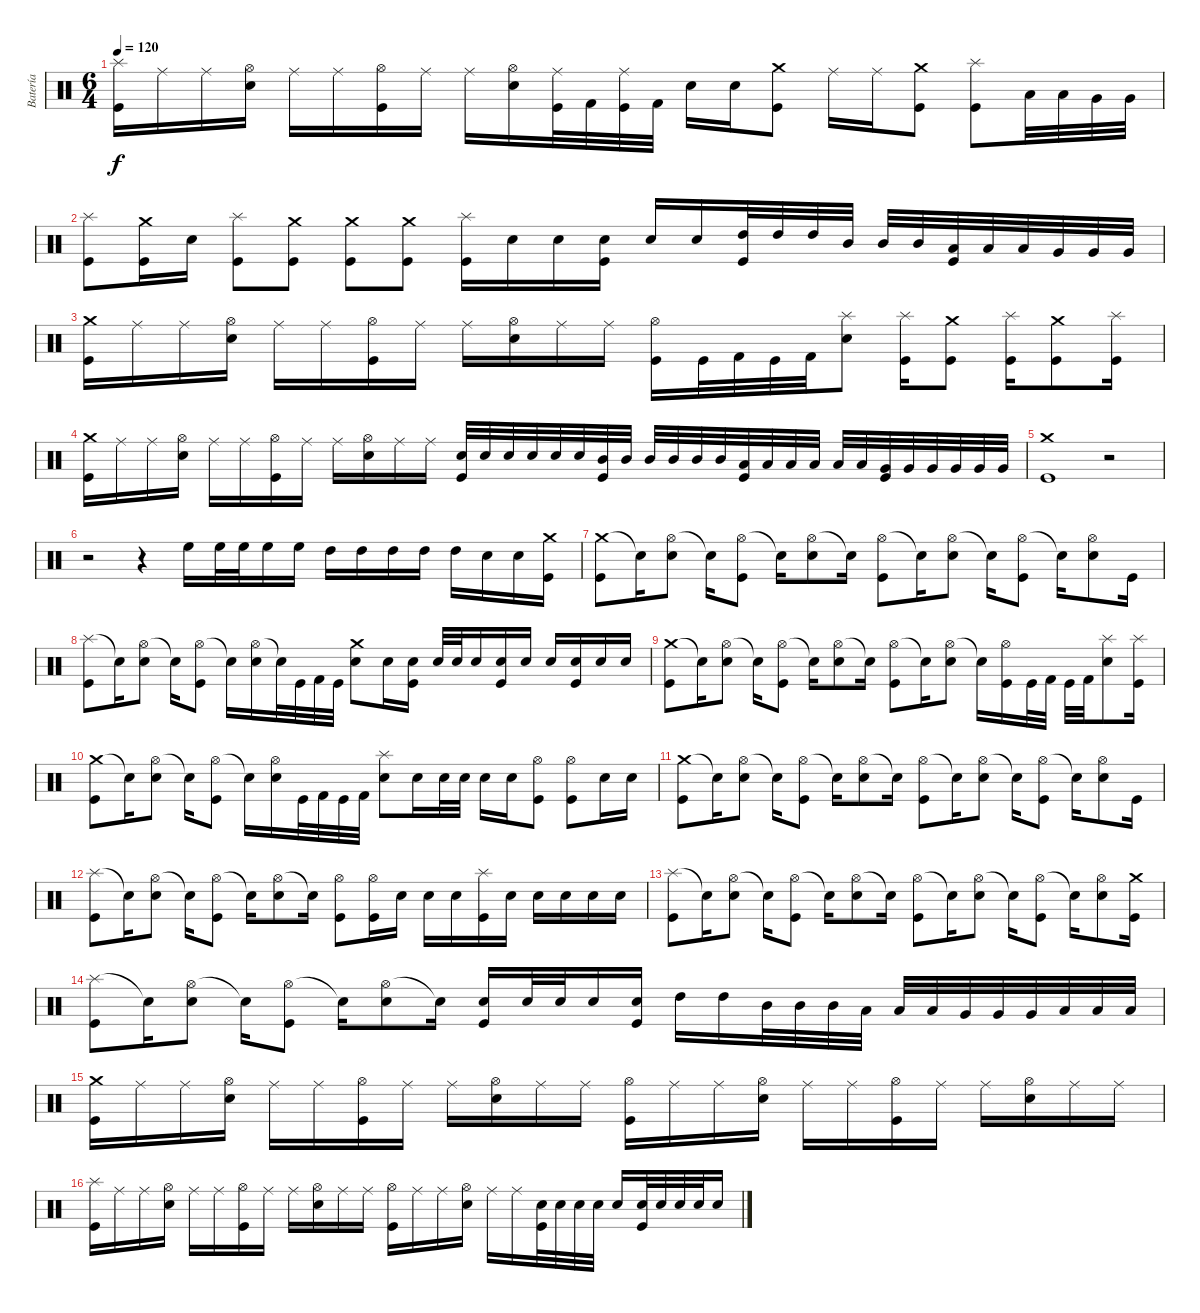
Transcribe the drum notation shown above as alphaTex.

\track ("Batería" "Batería") {instrument percussion}
\staff {score}
\articulation defaults
\ts (6 4)
\tempo 120
\clef neutral
\ks c
("Splash (hit)" "Kick (hit)").16{dy f} "Ride (middle)".16 "Ride (middle)".16 ("Hi-Hat (open)" "Electric Snare (hit)").16 "Ride (middle)".16 "Ride (middle)".16 ("Hi-Hat (open)" "Kick (hit)").16 "Ride (middle)".16 "Ride (middle)".16 ("Hi-Hat (open)" "Electric Snare (hit)").16 ("Ride (middle)" "Kick (hit)").32 "Kick (hit) 2".32 ("Ride (middle)" "Kick (hit)").32 "Kick (hit) 2".32 "Electric Snare (hit)".16 "Electric Snare (hit)".16 ("Crash medium (hit)" "Kick (hit)").8 "Ride (middle)".16 "Ride (middle)".16 ("Crash medium (hit)" "Kick (hit)").8 ("Splash (hit)" "Kick (hit)").8 "Low Tom (hit)".32 "Low Tom (hit)".32 "Very Low Tom (hit)".32 "Very Low Tom (hit)".32 |
("Splash (hit)" "Kick (hit)").8 ("Crash medium (hit)" "Kick (hit)").16 "Electric Snare (hit)".16 ("Splash (hit)" "Kick (hit)").8 ("Crash medium (hit)" "Kick (hit)").8 ("Crash medium (hit)" "Kick (hit)").8 ("Crash medium (hit)" "Kick (hit)").8 ("Splash (hit)" "Kick (hit)").16 "Electric Snare (hit)".16 "Electric Snare (hit)".16 ("Electric Snare (hit)" "Kick (hit)").16 "Electric Snare (hit)".16 "Electric Snare (hit)".16 ("High Tom (hit)" "Kick (hit)").32 "High Tom (hit)".32 "High Tom (hit)".32 "Mid Tom (hit)".32 "Mid Tom (hit)".32 "Mid Tom (hit)".32 ("Low Tom (hit)" "Kick (hit)").32 "Low Tom (hit)".32 "Low Tom (hit)".32 "Very Low Tom (hit)".32 "Very Low Tom (hit)".32 "Very Low Tom (hit)".32 |
("Crash medium (hit)" "Kick (hit)").16 "Ride (middle)".16 "Ride (middle)".16 ("Hi-Hat (open)" "Electric Snare (hit)").16 "Ride (middle)".16 "Ride (middle)".16 ("Hi-Hat (open)" "Kick (hit)").16 "Ride (middle)".16 "Ride (middle)".16 ("Hi-Hat (open)" "Electric Snare (hit)").16 "Ride (middle)".16 "Ride (middle)".16 ("Hi-Hat (open)" "Kick (hit)").16 "Kick (hit)".32 "Kick (hit) 2".32 "Kick (hit)".32 "Kick (hit) 2".32 ("Splash (hit)" "Electric Snare (hit)").8 ("Splash (hit)" "Kick (hit)").16 ("Crash medium (hit)" "Kick (hit)").8 ("Splash (hit)" "Kick (hit)").16 ("Crash medium (hit)" "Kick (hit)").8 ("Splash (hit)" "Kick (hit)").16 |
("Crash medium (hit)" "Kick (hit)").16 "Ride (middle)".16 "Ride (middle)".16 ("Hi-Hat (open)" "Electric Snare (hit)").16 "Ride (middle)".16 "Ride (middle)".16 ("Hi-Hat (open)" "Kick (hit)").16 "Ride (middle)".16 "Ride (middle)".16 ("Hi-Hat (open)" "Electric Snare (hit)").16 "Ride (middle)".16 "Ride (middle)".16 ("Electric Snare (hit)" "Kick (hit)").32 "Electric Snare (hit)".32 "Electric Snare (hit)".32 "Electric Snare (hit)".32 "Electric Snare (hit)".32 "Electric Snare (hit)".32 ("Mid Tom (hit)" "Kick (hit)").32 "Mid Tom (hit)".32 "Mid Tom (hit)".32 "Mid Tom (hit)".32 "Mid Tom (hit)".32 "Mid Tom (hit)".32 ("Low Tom (hit)" "Kick (hit)").32 "Low Tom (hit)".32 "Low Tom (hit)".32 "Low Tom (hit)".32 "Low Tom (hit)".32 "Low Tom (hit)".32 ("Very Low Tom (hit)" "Kick (hit)").32 "Very Low Tom (hit)".32 "Very Low Tom (hit)".32 "Very Low Tom (hit)".32 "Very Low Tom (hit)".32 "Very Low Tom (hit)".32 |
("Crash medium (hit)" "Kick (hit)").1 r.2 |
r.2 r.4 "High Floor Tom (hit)".16 "High Floor Tom (hit)".32 "High Floor Tom (hit)".32 "High Floor Tom (hit)".16 "High Floor Tom (hit)".16 "High Tom (hit)".16 "High Tom (hit)".16 "High Tom (hit)".16 "High Tom (hit)".16 "High Tom (hit)".16 "Electric Snare (hit)".16 "Electric Snare (hit)".16 ("Crash medium (hit)" "Kick (hit)").16 |
("Crash medium (hit)" "Kick (hit)").8 "Snare (hit)"{t}.16 ("Hi-Hat (open)" "Electric Snare (hit)").8 "Snare (hit)"{t}.16 ("Hi-Hat (open)" "Kick (hit)").8 "Snare (hit)"{t}.16 ("Hi-Hat (open)" "Electric Snare (hit)").8 "Snare (hit)"{t}.16 ("Hi-Hat (open)" "Kick (hit)").8 "Snare (hit)"{t}.16 ("Hi-Hat (open)" "Electric Snare (hit)").8 "Snare (hit)"{t}.16 ("Hi-Hat (open)" "Kick (hit)").8 "Snare (hit)"{t}.16 ("Hi-Hat (open)" "Electric Snare (hit)").8 "Kick (hit)".16 |
("Splash (hit)" "Kick (hit)").8 "Snare (hit)"{t}.16 ("Hi-Hat (open)" "Electric Snare (hit)").8 "Snare (hit)"{t}.16 ("Hi-Hat (open)" "Kick (hit)").8 "Snare (hit)"{t}.16 ("Hi-Hat (open)" "Electric Snare (hit)").16 "Snare (hit)"{t}.32 "Kick (hit)".32 "Kick (hit) 2".32 "Kick (hit)".32 ("Crash medium (hit)" "Electric Snare (hit)").8 "Electric Snare (hit)".16 ("Electric Snare (hit)" "Kick (hit)").16 "Electric Snare (hit)".32 "Electric Snare (hit)".32 "Electric Snare (hit)".16 ("Electric Snare (hit)" "Kick (hit)").16 "Electric Snare (hit)".16 "Electric Snare (hit)".16 ("Electric Snare (hit)" "Kick (hit)").16 "Electric Snare (hit)".16 "Electric Snare (hit)".16 |
("Crash medium (hit)" "Kick (hit)").8 "Snare (hit)"{t}.16 ("Hi-Hat (open)" "Electric Snare (hit)").8 "Snare (hit)"{t}.16 ("Hi-Hat (open)" "Kick (hit)").8 "Snare (hit)"{t}.16 ("Hi-Hat (open)" "Electric Snare (hit)").8 "Snare (hit)"{t}.16 ("Hi-Hat (open)" "Kick (hit)").8 "Snare (hit)"{t}.16 ("Hi-Hat (open)" "Electric Snare (hit)").8 "Snare (hit)"{t}.16 ("Hi-Hat (open)" "Kick (hit)").16 "Kick (hit)".32 "Kick (hit) 2".32 "Kick (hit)".32 "Kick (hit) 2".32 ("Splash (hit)" "Electric Snare (hit)").8 ("Splash (hit)" "Kick (hit)").16 |
("Crash medium (hit)" "Kick (hit)").8 "Snare (hit)"{t}.16 ("Hi-Hat (open)" "Electric Snare (hit)").8 "Snare (hit)"{t}.16 ("Hi-Hat (open)" "Kick (hit)").8 "Snare (hit)"{t}.16 ("Hi-Hat (open)" "Electric Snare (hit)").16 "Kick (hit)".32 "Kick (hit) 2".32 "Kick (hit)".32 "Kick (hit) 2".32 ("Splash (hit)" "Electric Snare (hit)").8 "Electric Snare (hit)".16 "Electric Snare (hit)".32 "Electric Snare (hit)".32 "Electric Snare (hit)".16 "Electric Snare (hit)".16 ("Hi-Hat (open)" "Kick (hit)").8 ("Hi-Hat (open)" "Kick (hit)").8 "Electric Snare (hit)".16 "Electric Snare (hit)".16 |
("Crash medium (hit)" "Kick (hit)").8 "Snare (hit)"{t}.16 ("Hi-Hat (open)" "Electric Snare (hit)").8 "Snare (hit)"{t}.16 ("Hi-Hat (open)" "Kick (hit)").8 "Snare (hit)"{t}.16 ("Hi-Hat (open)" "Electric Snare (hit)").8 "Snare (hit)"{t}.16 ("Hi-Hat (open)" "Kick (hit)").8 "Snare (hit)"{t}.16 ("Hi-Hat (open)" "Electric Snare (hit)").8 "Snare (hit)"{t}.16 ("Hi-Hat (open)" "Kick (hit)").8 "Snare (hit)"{t}.16 ("Hi-Hat (open)" "Electric Snare (hit)").8 "Kick (hit)".16 |
("Splash (hit)" "Kick (hit)").8 "Snare (hit)"{t}.16 ("Hi-Hat (open)" "Electric Snare (hit)").8 "Snare (hit)"{t}.16 ("Hi-Hat (open)" "Kick (hit)").8 "Snare (hit)"{t}.16 ("Hi-Hat (open)" "Electric Snare (hit)").8 "Snare (hit)"{t}.16 ("Hi-Hat (open)" "Kick (hit)").8 ("Hi-Hat (open)" "Kick (hit)").16 "Electric Snare (hit)".16 "Electric Snare (hit)".16 "Electric Snare (hit)".16 ("Splash (hit)" "Kick (hit)").16 "Electric Snare (hit)".16 "Electric Snare (hit)".16 "Electric Snare (hit)".16 "Electric Snare (hit)".16 "Electric Snare (hit)".16 |
("Splash (hit)" "Kick (hit)").8 "Snare (hit)"{t}.16 ("Hi-Hat (open)" "Electric Snare (hit)").8 "Snare (hit)"{t}.16 ("Hi-Hat (open)" "Kick (hit)").8 "Snare (hit)"{t}.16 ("Hi-Hat (open)" "Electric Snare (hit)").8 "Snare (hit)"{t}.16 ("Hi-Hat (open)" "Kick (hit)").8 "Snare (hit)"{t}.16 ("Hi-Hat (open)" "Electric Snare (hit)").8 "Snare (hit)"{t}.16 ("Hi-Hat (open)" "Kick (hit)").8 "Snare (hit)"{t}.16 ("Hi-Hat (open)" "Electric Snare (hit)").8 ("Crash medium (hit)" "Kick (hit)").16 |
("Splash (hit)" "Kick (hit)").8 "Snare (hit)"{t}.16 ("Hi-Hat (open)" "Electric Snare (hit)").8 "Snare (hit)"{t}.16 ("Hi-Hat (open)" "Kick (hit)").8 "Snare (hit)"{t}.16 ("Hi-Hat (open)" "Electric Snare (hit)").8 "Snare (hit)"{t}.16 ("Electric Snare (hit)" "Kick (hit)").16 "Electric Snare (hit)".32 "Electric Snare (hit)".32 "Electric Snare (hit)".16 ("Electric Snare (hit)" "Kick (hit)").16 "High Tom (hit)".16 "High Tom (hit)".16 "Mid Tom (hit)".32 "Mid Tom (hit)".32 "Mid Tom (hit)".32 "Low Tom (hit)".32 "Low Tom (hit)".32 "Low Tom (hit)".32 "Very Low Tom (hit)".32 "Very Low Tom (hit)".32 "Very Low Tom (hit)".32 "Low Floor Tom (hit)".32 "Low Floor Tom (hit)".32 "Low Floor Tom (hit)".32 |
("Crash medium (hit)" "Kick (hit)").16 "Ride (middle)".16 "Ride (middle)".16 ("Hi-Hat (open)" "Electric Snare (hit)").16 "Ride (middle)".16 "Ride (middle)".16 ("Hi-Hat (open)" "Kick (hit)").16 "Ride (middle)".16 "Ride (middle)".16 ("Hi-Hat (open)" "Electric Snare (hit)").16 "Ride (middle)".16 "Ride (middle)".16 ("Hi-Hat (open)" "Kick (hit)").16 "Ride (middle)".16 "Ride (middle)".16 ("Hi-Hat (open)" "Electric Snare (hit)").16 "Ride (middle)".16 "Ride (middle)".16 ("Hi-Hat (open)" "Kick (hit)").16 "Ride (middle)".16 "Ride (middle)".16 ("Hi-Hat (open)" "Electric Snare (hit)").16 "Ride (middle)".16 "Ride (middle)".16 |
("Splash (hit)" "Kick (hit)").16 "Ride (middle)".16 "Ride (middle)".16 ("Hi-Hat (open)" "Electric Snare (hit)").16 "Ride (middle)".16 "Ride (middle)".16 ("Hi-Hat (open)" "Kick (hit)").16 "Ride (middle)".16 "Ride (middle)".16 ("Hi-Hat (open)" "Electric Snare (hit)").16 "Ride (middle)".16 "Ride (middle)".16 ("Hi-Hat (open)" "Kick (hit)").16 "Ride (middle)".16 "Ride (middle)".16 ("Hi-Hat (open)" "Electric Snare (hit)").16 "Ride (middle)".16 "Ride (middle)".16 ("Electric Snare (hit)" "Kick (hit)").32 "Electric Snare (hit)".32 "Electric Snare (hit)".32 "Electric Snare (hit)".32 "Electric Snare (hit)".16 ("Electric Snare (hit)" "Kick (hit)").32 "Electric Snare (hit)".32 "Electric Snare (hit)".32 "Electric Snare (hit)".32 "Electric Snare (hit)".16
